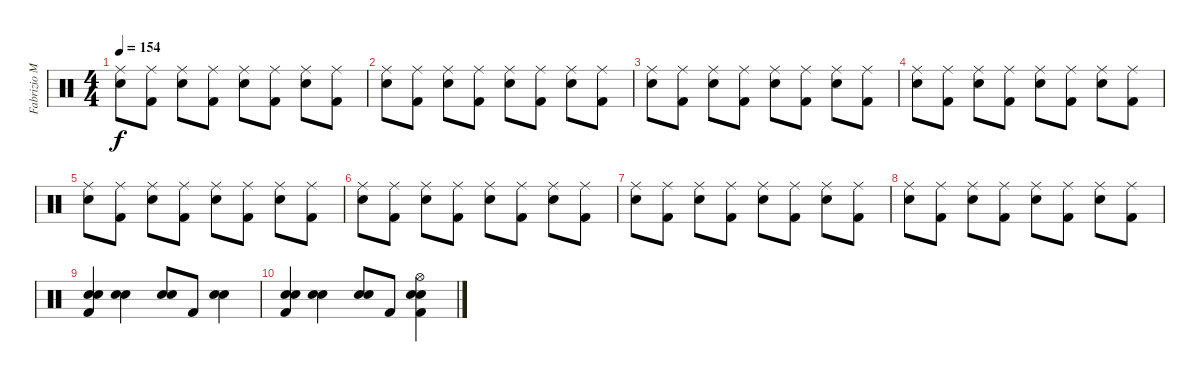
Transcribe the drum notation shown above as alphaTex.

\track ("Fabrizio Moretti" "Fabrizio M") {instrument percussion}
\staff {score}
\articulation defaults
\ts (4 4)
\tempo 154
\clef neutral
\ks c
("Ride (middle)" "Electric Snare (hit)").8{dy f} ("Ride (middle)" "Kick (hit) 2").8 ("Ride (middle)" "Electric Snare (hit)").8 ("Ride (middle)" "Kick (hit) 2").8 ("Ride (middle)" "Electric Snare (hit)").8 ("Ride (middle)" "Kick (hit) 2").8 ("Ride (middle)" "Electric Snare (hit)").8 ("Ride (middle)" "Kick (hit) 2").8 |
("Ride (middle)" "Electric Snare (hit)").8 ("Ride (middle)" "Kick (hit) 2").8 ("Ride (middle)" "Electric Snare (hit)").8 ("Ride (middle)" "Kick (hit) 2").8 ("Ride (middle)" "Electric Snare (hit)").8 ("Ride (middle)" "Kick (hit) 2").8 ("Ride (middle)" "Electric Snare (hit)").8 ("Ride (middle)" "Kick (hit) 2").8 |
("Ride (middle)" "Electric Snare (hit)").8 ("Ride (middle)" "Kick (hit) 2").8 ("Ride (middle)" "Electric Snare (hit)").8 ("Ride (middle)" "Kick (hit) 2").8 ("Ride (middle)" "Electric Snare (hit)").8 ("Ride (middle)" "Kick (hit) 2").8 ("Ride (middle)" "Electric Snare (hit)").8 ("Ride (middle)" "Kick (hit) 2").8 |
("Ride (middle)" "Electric Snare (hit)").8 ("Ride (middle)" "Kick (hit) 2").8 ("Ride (middle)" "Electric Snare (hit)").8 ("Ride (middle)" "Kick (hit) 2").8 ("Ride (middle)" "Electric Snare (hit)").8 ("Ride (middle)" "Kick (hit) 2").8 ("Ride (middle)" "Electric Snare (hit)").8 ("Ride (middle)" "Kick (hit) 2").8 |
("Ride (middle)" "Electric Snare (hit)").8 ("Ride (middle)" "Kick (hit) 2").8 ("Ride (middle)" "Electric Snare (hit)").8 ("Ride (middle)" "Kick (hit) 2").8 ("Ride (middle)" "Electric Snare (hit)").8 ("Ride (middle)" "Kick (hit) 2").8 ("Ride (middle)" "Electric Snare (hit)").8 ("Ride (middle)" "Kick (hit) 2").8 |
("Ride (middle)" "Electric Snare (hit)").8 ("Ride (middle)" "Kick (hit) 2").8 ("Ride (middle)" "Electric Snare (hit)").8 ("Ride (middle)" "Kick (hit) 2").8 ("Ride (middle)" "Electric Snare (hit)").8 ("Ride (middle)" "Kick (hit) 2").8 ("Ride (middle)" "Electric Snare (hit)").8 ("Ride (middle)" "Kick (hit) 2").8 |
("Ride (middle)" "Electric Snare (hit)").8 ("Ride (middle)" "Kick (hit) 2").8 ("Ride (middle)" "Electric Snare (hit)").8 ("Ride (middle)" "Kick (hit) 2").8 ("Ride (middle)" "Electric Snare (hit)").8 ("Ride (middle)" "Kick (hit) 2").8 ("Ride (middle)" "Electric Snare (hit)").8 ("Ride (middle)" "Kick (hit) 2").8 |
("Ride (middle)" "Electric Snare (hit)").8 ("Ride (middle)" "Kick (hit) 2").8 ("Ride (middle)" "Electric Snare (hit)").8 ("Ride (middle)" "Kick (hit) 2").8 ("Ride (middle)" "Electric Snare (hit)").8 ("Ride (middle)" "Kick (hit) 2").8 ("Ride (middle)" "Electric Snare (hit)").8 ("Ride (middle)" "Kick (hit) 2").8 |
("Electric Snare (hit)" "Electric Snare (hit)" "Kick (hit) 2").4 ("Electric Snare (hit)" "Electric Snare (hit)").4 ("Electric Snare (hit)" "Electric Snare (hit)").8 "Kick (hit) 2".8 ("Electric Snare (hit)" "Electric Snare (hit)").4 |
("Electric Snare (hit)" "Electric Snare (hit)" "Kick (hit) 2").4 ("Electric Snare (hit)" "Electric Snare (hit)").4 ("Electric Snare (hit)" "Electric Snare (hit)").8 "Kick (hit) 2".8 ("Electric Snare (hit)" "Electric Snare (hit)" "Kick (hit) 2" "Hi-Hat (open)").4
